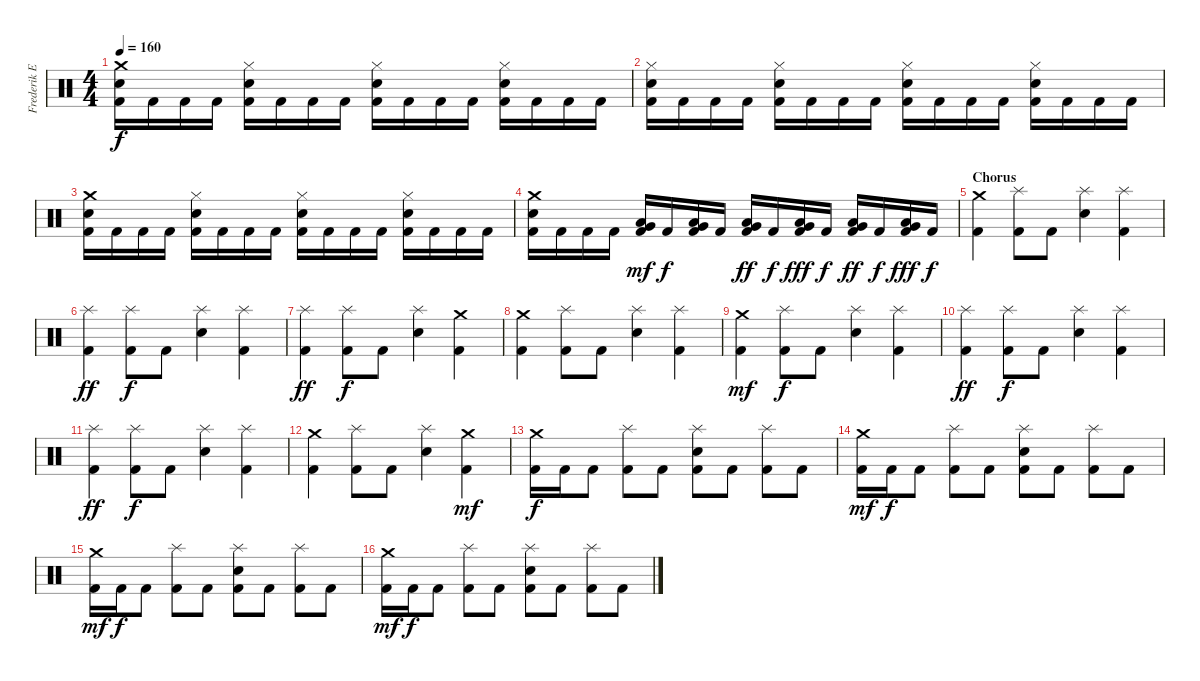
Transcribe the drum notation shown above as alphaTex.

\track ("Frederik Ehmke" "Frederik E") {instrument percussion}
\staff {score}
\articulation defaults
\ts (4 4)
\tempo 160
\clef neutral
\ks c
("Crash medium (hit)" "Electric Snare (hit)" "Kick (hit) 2").16{dy f} "Kick (hit) 2".16 "Kick (hit) 2".16 "Kick (hit) 2".16 ("Hi-Hat (closed)" "Electric Snare (hit)" "Kick (hit) 2").16 "Kick (hit) 2".16 "Kick (hit) 2".16 "Kick (hit) 2".16 ("Hi-Hat (closed)" "Electric Snare (hit)" "Kick (hit) 2").16 "Kick (hit) 2".16 "Kick (hit) 2".16 "Kick (hit) 2".16 ("Hi-Hat (closed)" "Electric Snare (hit)" "Kick (hit) 2").16 "Kick (hit) 2".16 "Kick (hit) 2".16 "Kick (hit) 2".16 |
("Hi-Hat (closed)" "Electric Snare (hit)" "Kick (hit) 2").16 "Kick (hit) 2".16 "Kick (hit) 2".16 "Kick (hit) 2".16 ("Hi-Hat (closed)" "Electric Snare (hit)" "Kick (hit) 2").16 "Kick (hit) 2".16 "Kick (hit) 2".16 "Kick (hit) 2".16 ("Hi-Hat (closed)" "Electric Snare (hit)" "Kick (hit) 2").16 "Kick (hit) 2".16 "Kick (hit) 2".16 "Kick (hit) 2".16 ("Hi-Hat (closed)" "Electric Snare (hit)" "Kick (hit) 2").16 "Kick (hit) 2".16 "Kick (hit) 2".16 "Kick (hit) 2".16 |
("Crash medium (hit)" "Electric Snare (hit)" "Kick (hit) 2").16 "Kick (hit) 2".16 "Kick (hit) 2".16 "Kick (hit) 2".16 ("Hi-Hat (closed)" "Electric Snare (hit)" "Kick (hit) 2").16 "Kick (hit) 2".16 "Kick (hit) 2".16 "Kick (hit) 2".16 ("Hi-Hat (closed)" "Electric Snare (hit)" "Kick (hit) 2").16 "Kick (hit) 2".16 "Kick (hit) 2".16 "Kick (hit) 2".16 ("Hi-Hat (closed)" "Electric Snare (hit)" "Kick (hit) 2").16 "Kick (hit) 2".16 "Kick (hit) 2".16 "Kick (hit) 2".16 |
("Crash medium (hit)" "Electric Snare (hit)" "Kick (hit) 2").16 "Kick (hit) 2".16 "Kick (hit) 2".16 "Kick (hit) 2".16 ("Very Low Tom (hit)" "Low Floor Tom (hit)" "Kick (hit) 2").16{dy mf} "Kick (hit) 2".16{dy f} ("Very Low Tom (hit)" "Low Floor Tom (hit)" "Kick (hit) 2").16 "Kick (hit) 2".16 ("Very Low Tom (hit)" "Low Floor Tom (hit)" "Kick (hit) 2").16{dy ff} "Kick (hit) 2".16{dy f} ("Very Low Tom (hit)" "Low Floor Tom (hit)" "Kick (hit) 2").16{dy fff} "Kick (hit) 2".16{dy f} ("Very Low Tom (hit)" "Low Floor Tom (hit)" "Kick (hit) 2").16{dy ff} "Kick (hit) 2".16{dy f} ("Very Low Tom (hit)" "Low Floor Tom (hit)" "Kick (hit) 2").16{dy fff} "Kick (hit) 2".16{dy f} |
\section ("" "Chorus")
("Crash medium (hit)" "Kick (hit) 2").4 ("Splash (hit)" "Kick (hit) 2").8 "Kick (hit) 2".8 ("Splash (hit)" "Electric Snare (hit)").4 ("Splash (hit)" "Kick (hit) 2").4 |
("Splash (hit)" "Kick (hit) 2").4{dy ff} ("Splash (hit)" "Kick (hit) 2").8{dy f} "Kick (hit) 2".8 ("Splash (hit)" "Electric Snare (hit)").4 ("Splash (hit)" "Kick (hit) 2").4 |
("Splash (hit)" "Kick (hit) 2").4{dy ff} ("Splash (hit)" "Kick (hit) 2").8{dy f} "Kick (hit) 2".8 ("Splash (hit)" "Electric Snare (hit)").4 ("Crash medium (hit)" "Kick (hit) 2").4 |
("Crash medium (hit)" "Kick (hit) 2").4 ("Splash (hit)" "Kick (hit) 2").8 "Kick (hit) 2".8 ("Splash (hit)" "Electric Snare (hit)").4 ("Splash (hit)" "Kick (hit) 2").4 |
("Crash medium (hit)" "Kick (hit) 2").4{dy mf} ("Splash (hit)" "Kick (hit) 2").8{dy f} "Kick (hit) 2".8 ("Splash (hit)" "Electric Snare (hit)").4 ("Splash (hit)" "Kick (hit) 2").4 |
("Splash (hit)" "Kick (hit) 2").4{dy ff} ("Splash (hit)" "Kick (hit) 2").8{dy f} "Kick (hit) 2".8 ("Splash (hit)" "Electric Snare (hit)").4 ("Splash (hit)" "Kick (hit) 2").4 |
("Splash (hit)" "Kick (hit) 2").4{dy ff} ("Splash (hit)" "Kick (hit) 2").8{dy f} "Kick (hit) 2".8 ("Splash (hit)" "Electric Snare (hit)").4 ("Splash (hit)" "Kick (hit) 2").4 |
("Crash medium (hit)" "Kick (hit) 2").4 ("Splash (hit)" "Kick (hit) 2").8 "Kick (hit) 2".8 ("Splash (hit)" "Electric Snare (hit)").4 ("Crash medium (hit)" "Kick (hit) 2").4{dy mf} |
("Crash medium (hit)" "Kick (hit) 2").16{dy f} "Kick (hit) 2".16 "Kick (hit) 2".8 ("Splash (hit)" "Kick (hit) 2").8 "Kick (hit) 2".8 ("Splash (hit)" "Electric Snare (hit)" "Kick (hit) 2").8 "Kick (hit) 2".8 ("Splash (hit)" "Kick (hit) 2").8 "Kick (hit) 2".8 |
("Crash medium (hit)" "Kick (hit) 2").16{dy mf} "Kick (hit) 2".16{dy f} "Kick (hit) 2".8 ("Splash (hit)" "Kick (hit) 2").8 "Kick (hit) 2".8 ("Splash (hit)" "Electric Snare (hit)" "Kick (hit) 2").8 "Kick (hit) 2".8 ("Splash (hit)" "Kick (hit) 2").8 "Kick (hit) 2".8 |
("Crash medium (hit)" "Kick (hit) 2").16{dy mf} "Kick (hit) 2".16{dy f} "Kick (hit) 2".8 ("Splash (hit)" "Kick (hit) 2").8 "Kick (hit) 2".8 ("Splash (hit)" "Electric Snare (hit)" "Kick (hit) 2").8 "Kick (hit) 2".8 ("Splash (hit)" "Kick (hit) 2").8 "Kick (hit) 2".8 |
("Crash medium (hit)" "Kick (hit) 2").16{dy mf} "Kick (hit) 2".16{dy f} "Kick (hit) 2".8 ("Splash (hit)" "Kick (hit) 2").8 "Kick (hit) 2".8 ("Splash (hit)" "Electric Snare (hit)" "Kick (hit) 2").8 "Kick (hit) 2".8 ("Splash (hit)" "Kick (hit) 2").8 "Kick (hit) 2".8
